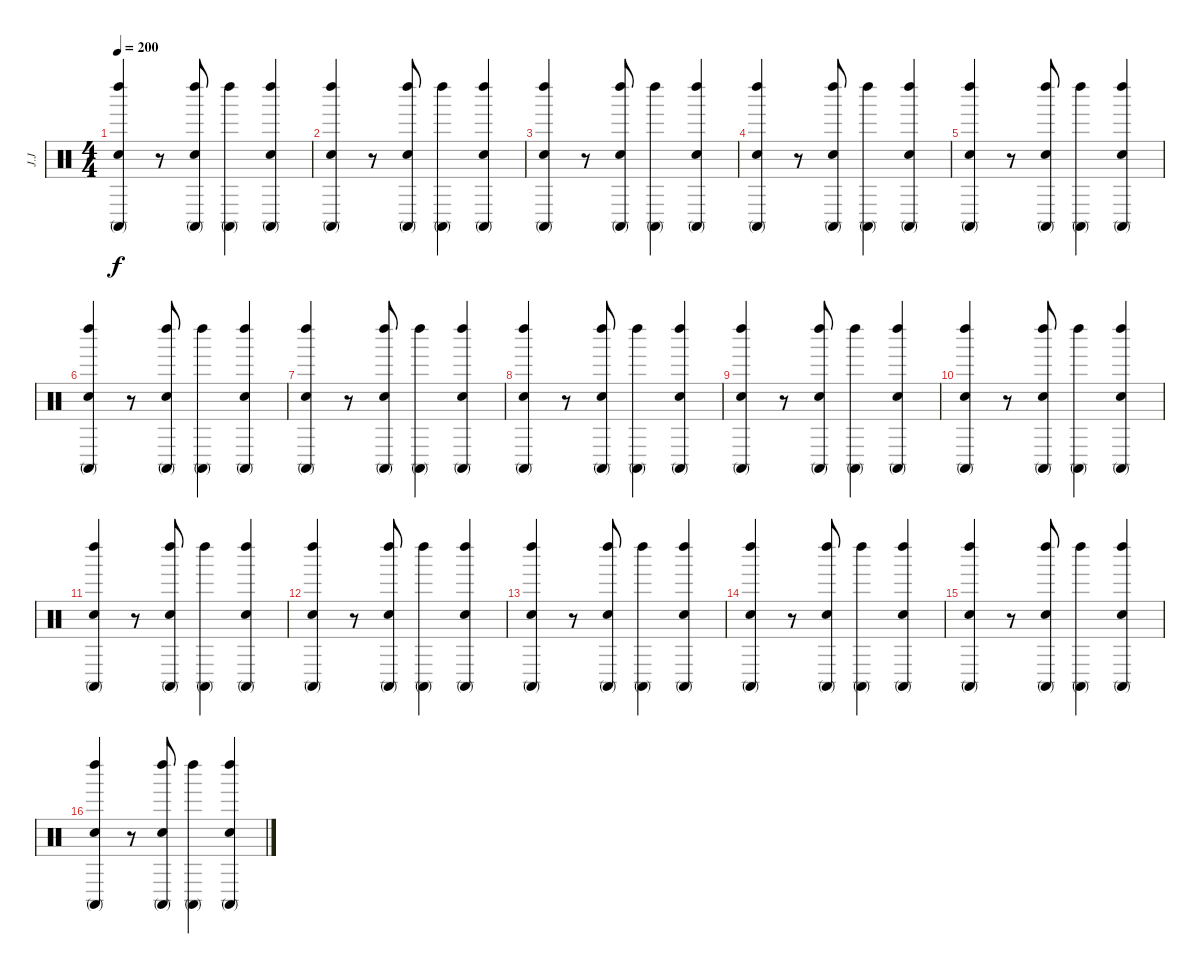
\track ("J.J" "J.J") {instrument percussion}
\staff {score}
\articulation defaults
\ts (4 4)
\tempo 200
\clef neutral
\ks c
("Conga high (mute)" "Left Maraca (hit)" "Snare (hit) 2").4{dy f} r.8 ("Conga high (mute)" "Left Maraca (hit)" "Snare (hit) 2").8 ("Conga high (mute)" "Left Maraca (hit)").4 ("Conga high (mute)" "Left Maraca (hit)" "Snare (hit) 2").4 |
("Conga high (mute)" "Left Maraca (hit)" "Snare (hit) 2").4 r.8 ("Conga high (mute)" "Left Maraca (hit)" "Snare (hit) 2").8 ("Conga high (mute)" "Left Maraca (hit)").4 ("Conga high (mute)" "Left Maraca (hit)" "Snare (hit) 2").4 |
("Conga high (mute)" "Left Maraca (hit)" "Snare (hit) 2").4 r.8 ("Conga high (mute)" "Left Maraca (hit)" "Snare (hit) 2").8 ("Conga high (mute)" "Left Maraca (hit)").4 ("Conga high (mute)" "Left Maraca (hit)" "Snare (hit) 2").4 |
("Conga high (mute)" "Left Maraca (hit)" "Snare (hit) 2").4 r.8 ("Conga high (mute)" "Left Maraca (hit)" "Snare (hit) 2").8 ("Conga high (mute)" "Left Maraca (hit)").4 ("Conga high (mute)" "Left Maraca (hit)" "Snare (hit) 2").4 |
("Conga high (mute)" "Left Maraca (hit)" "Snare (hit) 2").4 r.8 ("Conga high (mute)" "Left Maraca (hit)" "Snare (hit) 2").8 ("Conga high (mute)" "Left Maraca (hit)").4 ("Conga high (mute)" "Left Maraca (hit)" "Snare (hit) 2").4 |
("Conga high (mute)" "Left Maraca (hit)" "Snare (hit) 2").4 r.8 ("Conga high (mute)" "Left Maraca (hit)" "Snare (hit) 2").8 ("Conga high (mute)" "Left Maraca (hit)").4 ("Conga high (mute)" "Left Maraca (hit)" "Snare (hit) 2").4 |
("Conga high (mute)" "Left Maraca (hit)" "Snare (hit) 2").4 r.8 ("Conga high (mute)" "Left Maraca (hit)" "Snare (hit) 2").8 ("Conga high (mute)" "Left Maraca (hit)").4 ("Conga high (mute)" "Left Maraca (hit)" "Snare (hit) 2").4 |
("Conga high (mute)" "Left Maraca (hit)" "Snare (hit) 2").4 r.8 ("Conga high (mute)" "Left Maraca (hit)" "Snare (hit) 2").8 ("Conga high (mute)" "Left Maraca (hit)").4 ("Conga high (mute)" "Left Maraca (hit)" "Snare (hit) 2").4 |
("Conga high (mute)" "Left Maraca (hit)" "Snare (hit) 2").4 r.8 ("Conga high (mute)" "Left Maraca (hit)" "Snare (hit) 2").8 ("Conga high (mute)" "Left Maraca (hit)").4 ("Conga high (mute)" "Left Maraca (hit)" "Snare (hit) 2").4 |
("Conga high (mute)" "Left Maraca (hit)" "Snare (hit) 2").4 r.8 ("Conga high (mute)" "Left Maraca (hit)" "Snare (hit) 2").8 ("Conga high (mute)" "Left Maraca (hit)").4 ("Conga high (mute)" "Left Maraca (hit)" "Snare (hit) 2").4 |
("Conga high (mute)" "Left Maraca (hit)" "Snare (hit) 2").4 r.8 ("Conga high (mute)" "Left Maraca (hit)" "Snare (hit) 2").8 ("Conga high (mute)" "Left Maraca (hit)").4 ("Conga high (mute)" "Left Maraca (hit)" "Snare (hit) 2").4 |
("Conga high (mute)" "Left Maraca (hit)" "Snare (hit) 2").4 r.8 ("Conga high (mute)" "Left Maraca (hit)" "Snare (hit) 2").8 ("Conga high (mute)" "Left Maraca (hit)").4 ("Conga high (mute)" "Left Maraca (hit)" "Snare (hit) 2").4 |
("Conga high (mute)" "Left Maraca (hit)" "Snare (hit) 2").4 r.8 ("Conga high (mute)" "Left Maraca (hit)" "Snare (hit) 2").8 ("Conga high (mute)" "Left Maraca (hit)").4 ("Conga high (mute)" "Left Maraca (hit)" "Snare (hit) 2").4 |
("Conga high (mute)" "Left Maraca (hit)" "Snare (hit) 2").4 r.8 ("Conga high (mute)" "Left Maraca (hit)" "Snare (hit) 2").8 ("Conga high (mute)" "Left Maraca (hit)").4 ("Conga high (mute)" "Left Maraca (hit)" "Snare (hit) 2").4 |
("Conga high (mute)" "Left Maraca (hit)" "Snare (hit) 2").4 r.8 ("Conga high (mute)" "Left Maraca (hit)" "Snare (hit) 2").8 ("Conga high (mute)" "Left Maraca (hit)").4 ("Conga high (mute)" "Left Maraca (hit)" "Snare (hit) 2").4 |
("Conga high (mute)" "Left Maraca (hit)" "Snare (hit) 2").4 r.8 ("Conga high (mute)" "Left Maraca (hit)" "Snare (hit) 2").8 ("Conga high (mute)" "Left Maraca (hit)").4 ("Conga high (mute)" "Left Maraca (hit)" "Snare (hit) 2").4
